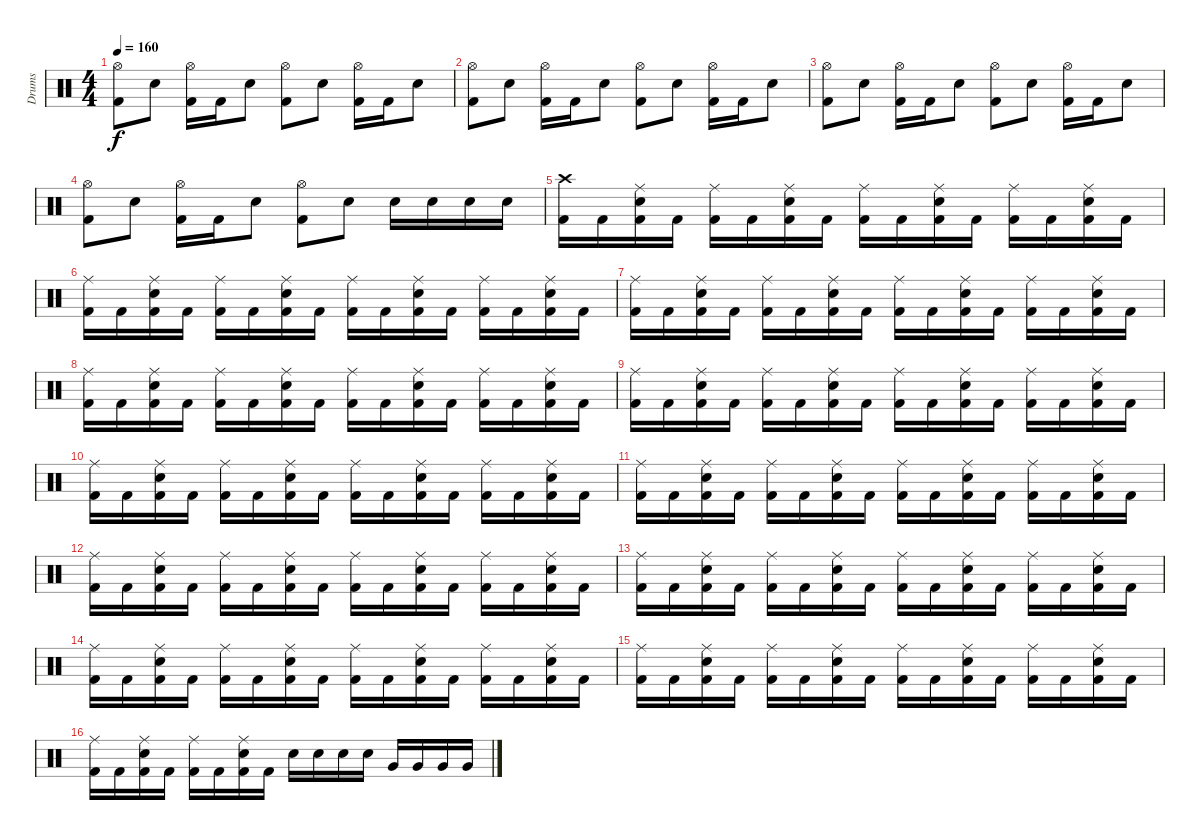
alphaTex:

\track ("Drums" "Drums") {instrument percussion}
\staff {score}
\articulation defaults
\ts (4 4)
\tempo 160
\clef neutral
\ks c
("Hi-Hat (open)" "Kick (hit) 2").8{dy f} "Electric Snare (hit)".8 ("Hi-Hat (open)" "Kick (hit) 2").16 "Kick (hit) 2".16 "Electric Snare (hit)".8 ("Hi-Hat (open)" "Kick (hit) 2").8 "Electric Snare (hit)".8 ("Hi-Hat (open)" "Kick (hit) 2").16 "Kick (hit) 2".16 "Electric Snare (hit)".8 |
("Hi-Hat (open)" "Kick (hit) 2").8 "Electric Snare (hit)".8 ("Hi-Hat (open)" "Kick (hit) 2").16 "Kick (hit) 2".16 "Electric Snare (hit)".8 ("Hi-Hat (open)" "Kick (hit) 2").8 "Electric Snare (hit)".8 ("Hi-Hat (open)" "Kick (hit) 2").16 "Kick (hit) 2".16 "Electric Snare (hit)".8 |
("Hi-Hat (open)" "Kick (hit) 2").8 "Electric Snare (hit)".8 ("Hi-Hat (open)" "Kick (hit) 2").16 "Kick (hit) 2".16 "Electric Snare (hit)".8 ("Hi-Hat (open)" "Kick (hit) 2").8 "Electric Snare (hit)".8 ("Hi-Hat (open)" "Kick (hit) 2").16 "Kick (hit) 2".16 "Electric Snare (hit)".8 |
("Hi-Hat (open)" "Kick (hit) 2").8 "Electric Snare (hit)".8 ("Hi-Hat (open)" "Kick (hit) 2").16 "Kick (hit) 2".16 "Electric Snare (hit)".8 ("Hi-Hat (open)" "Kick (hit) 2").8 "Electric Snare (hit)".8 "Electric Snare (hit)".16 "Electric Snare (hit)".16 "Electric Snare (hit)".16 "Electric Snare (hit)".16 |
("Crash high (hit)" "Kick (hit) 2").16 "Kick (hit) 2".16 ("Ride (middle)" "Electric Snare (hit)" "Kick (hit) 2").16 "Kick (hit) 2".16 ("Ride (middle)" "Kick (hit) 2").16 "Kick (hit) 2".16 ("Ride (middle)" "Electric Snare (hit)" "Kick (hit) 2").16 "Kick (hit) 2".16 ("Ride (middle)" "Kick (hit) 2").16 "Kick (hit) 2".16 ("Ride (middle)" "Electric Snare (hit)" "Kick (hit) 2").16 "Kick (hit) 2".16 ("Ride (middle)" "Kick (hit) 2").16 "Kick (hit) 2".16 ("Ride (middle)" "Electric Snare (hit)" "Kick (hit) 2").16 "Kick (hit) 2".16 |
("Ride (middle)" "Kick (hit) 2").16 "Kick (hit) 2".16 ("Ride (middle)" "Electric Snare (hit)" "Kick (hit) 2").16 "Kick (hit) 2".16 ("Ride (middle)" "Kick (hit) 2").16 "Kick (hit) 2".16 ("Ride (middle)" "Electric Snare (hit)" "Kick (hit) 2").16 "Kick (hit) 2".16 ("Ride (middle)" "Kick (hit) 2").16 "Kick (hit) 2".16 ("Ride (middle)" "Electric Snare (hit)" "Kick (hit) 2").16 "Kick (hit) 2".16 ("Ride (middle)" "Kick (hit) 2").16 "Kick (hit) 2".16 ("Ride (middle)" "Electric Snare (hit)" "Kick (hit) 2").16 "Kick (hit) 2".16 |
("Ride (middle)" "Kick (hit) 2").16 "Kick (hit) 2".16 ("Ride (middle)" "Electric Snare (hit)" "Kick (hit) 2").16 "Kick (hit) 2".16 ("Ride (middle)" "Kick (hit) 2").16 "Kick (hit) 2".16 ("Ride (middle)" "Electric Snare (hit)" "Kick (hit) 2").16 "Kick (hit) 2".16 ("Ride (middle)" "Kick (hit) 2").16 "Kick (hit) 2".16 ("Ride (middle)" "Electric Snare (hit)" "Kick (hit) 2").16 "Kick (hit) 2".16 ("Ride (middle)" "Kick (hit) 2").16 "Kick (hit) 2".16 ("Ride (middle)" "Electric Snare (hit)" "Kick (hit) 2").16 "Kick (hit) 2".16 |
("Ride (middle)" "Kick (hit) 2").16 "Kick (hit) 2".16 ("Ride (middle)" "Electric Snare (hit)" "Kick (hit) 2").16 "Kick (hit) 2".16 ("Ride (middle)" "Kick (hit) 2").16 "Kick (hit) 2".16 ("Ride (middle)" "Electric Snare (hit)" "Kick (hit) 2").16 "Kick (hit) 2".16 ("Ride (middle)" "Kick (hit) 2").16 "Kick (hit) 2".16 ("Ride (middle)" "Electric Snare (hit)" "Kick (hit) 2").16 "Kick (hit) 2".16 ("Ride (middle)" "Kick (hit) 2").16 "Kick (hit) 2".16 ("Ride (middle)" "Electric Snare (hit)" "Kick (hit) 2").16 "Kick (hit) 2".16 |
("Ride (middle)" "Kick (hit) 2").16 "Kick (hit) 2".16 ("Ride (middle)" "Electric Snare (hit)" "Kick (hit) 2").16 "Kick (hit) 2".16 ("Ride (middle)" "Kick (hit) 2").16 "Kick (hit) 2".16 ("Ride (middle)" "Electric Snare (hit)" "Kick (hit) 2").16 "Kick (hit) 2".16 ("Ride (middle)" "Kick (hit) 2").16 "Kick (hit) 2".16 ("Ride (middle)" "Electric Snare (hit)" "Kick (hit) 2").16 "Kick (hit) 2".16 ("Ride (middle)" "Kick (hit) 2").16 "Kick (hit) 2".16 ("Ride (middle)" "Electric Snare (hit)" "Kick (hit) 2").16 "Kick (hit) 2".16 |
("Ride (middle)" "Kick (hit) 2").16 "Kick (hit) 2".16 ("Ride (middle)" "Electric Snare (hit)" "Kick (hit) 2").16 "Kick (hit) 2".16 ("Ride (middle)" "Kick (hit) 2").16 "Kick (hit) 2".16 ("Ride (middle)" "Electric Snare (hit)" "Kick (hit) 2").16 "Kick (hit) 2".16 ("Ride (middle)" "Kick (hit) 2").16 "Kick (hit) 2".16 ("Ride (middle)" "Electric Snare (hit)" "Kick (hit) 2").16 "Kick (hit) 2".16 ("Ride (middle)" "Kick (hit) 2").16 "Kick (hit) 2".16 ("Ride (middle)" "Electric Snare (hit)" "Kick (hit) 2").16 "Kick (hit) 2".16 |
("Ride (middle)" "Kick (hit) 2").16 "Kick (hit) 2".16 ("Ride (middle)" "Electric Snare (hit)" "Kick (hit) 2").16 "Kick (hit) 2".16 ("Ride (middle)" "Kick (hit) 2").16 "Kick (hit) 2".16 ("Ride (middle)" "Electric Snare (hit)" "Kick (hit) 2").16 "Kick (hit) 2".16 ("Ride (middle)" "Kick (hit) 2").16 "Kick (hit) 2".16 ("Ride (middle)" "Electric Snare (hit)" "Kick (hit) 2").16 "Kick (hit) 2".16 ("Ride (middle)" "Kick (hit) 2").16 "Kick (hit) 2".16 ("Ride (middle)" "Electric Snare (hit)" "Kick (hit) 2").16 "Kick (hit) 2".16 |
("Ride (middle)" "Kick (hit) 2").16 "Kick (hit) 2".16 ("Ride (middle)" "Electric Snare (hit)" "Kick (hit) 2").16 "Kick (hit) 2".16 ("Ride (middle)" "Kick (hit) 2").16 "Kick (hit) 2".16 ("Ride (middle)" "Electric Snare (hit)" "Kick (hit) 2").16 "Kick (hit) 2".16 ("Ride (middle)" "Kick (hit) 2").16 "Kick (hit) 2".16 ("Ride (middle)" "Electric Snare (hit)" "Kick (hit) 2").16 "Kick (hit) 2".16 ("Ride (middle)" "Kick (hit) 2").16 "Kick (hit) 2".16 ("Ride (middle)" "Electric Snare (hit)" "Kick (hit) 2").16 "Kick (hit) 2".16 |
("Ride (middle)" "Kick (hit) 2").16 "Kick (hit) 2".16 ("Ride (middle)" "Electric Snare (hit)" "Kick (hit) 2").16 "Kick (hit) 2".16 ("Ride (middle)" "Kick (hit) 2").16 "Kick (hit) 2".16 ("Ride (middle)" "Electric Snare (hit)" "Kick (hit) 2").16 "Kick (hit) 2".16 ("Ride (middle)" "Kick (hit) 2").16 "Kick (hit) 2".16 ("Ride (middle)" "Electric Snare (hit)" "Kick (hit) 2").16 "Kick (hit) 2".16 ("Ride (middle)" "Kick (hit) 2").16 "Kick (hit) 2".16 ("Ride (middle)" "Electric Snare (hit)" "Kick (hit) 2").16 "Kick (hit) 2".16 |
("Ride (middle)" "Kick (hit) 2").16 "Kick (hit) 2".16 ("Ride (middle)" "Electric Snare (hit)" "Kick (hit) 2").16 "Kick (hit) 2".16 ("Ride (middle)" "Kick (hit) 2").16 "Kick (hit) 2".16 ("Ride (middle)" "Electric Snare (hit)" "Kick (hit) 2").16 "Kick (hit) 2".16 ("Ride (middle)" "Kick (hit) 2").16 "Kick (hit) 2".16 ("Ride (middle)" "Electric Snare (hit)" "Kick (hit) 2").16 "Kick (hit) 2".16 ("Ride (middle)" "Kick (hit) 2").16 "Kick (hit) 2".16 ("Ride (middle)" "Electric Snare (hit)" "Kick (hit) 2").16 "Kick (hit) 2".16 |
("Ride (middle)" "Kick (hit) 2").16 "Kick (hit) 2".16 ("Ride (middle)" "Electric Snare (hit)" "Kick (hit) 2").16 "Kick (hit) 2".16 ("Ride (middle)" "Kick (hit) 2").16 "Kick (hit) 2".16 ("Ride (middle)" "Electric Snare (hit)" "Kick (hit) 2").16 "Kick (hit) 2".16 ("Ride (middle)" "Kick (hit) 2").16 "Kick (hit) 2".16 ("Ride (middle)" "Electric Snare (hit)" "Kick (hit) 2").16 "Kick (hit) 2".16 ("Ride (middle)" "Kick (hit) 2").16 "Kick (hit) 2".16 ("Ride (middle)" "Electric Snare (hit)" "Kick (hit) 2").16 "Kick (hit) 2".16 |
("Ride (middle)" "Kick (hit) 2").16 "Kick (hit) 2".16 ("Ride (middle)" "Electric Snare (hit)" "Kick (hit) 2").16 "Kick (hit) 2".16 ("Ride (middle)" "Kick (hit) 2").16 "Kick (hit) 2".16 ("Ride (middle)" "Electric Snare (hit)" "Kick (hit) 2").16 "Kick (hit) 2".16 "Electric Snare (hit)".16 "Electric Snare (hit)".16 "Electric Snare (hit)".16 "Electric Snare (hit)".16 "Very Low Tom (hit)".16 "Very Low Tom (hit)".16 "Very Low Tom (hit)".16 "Very Low Tom (hit)".16
